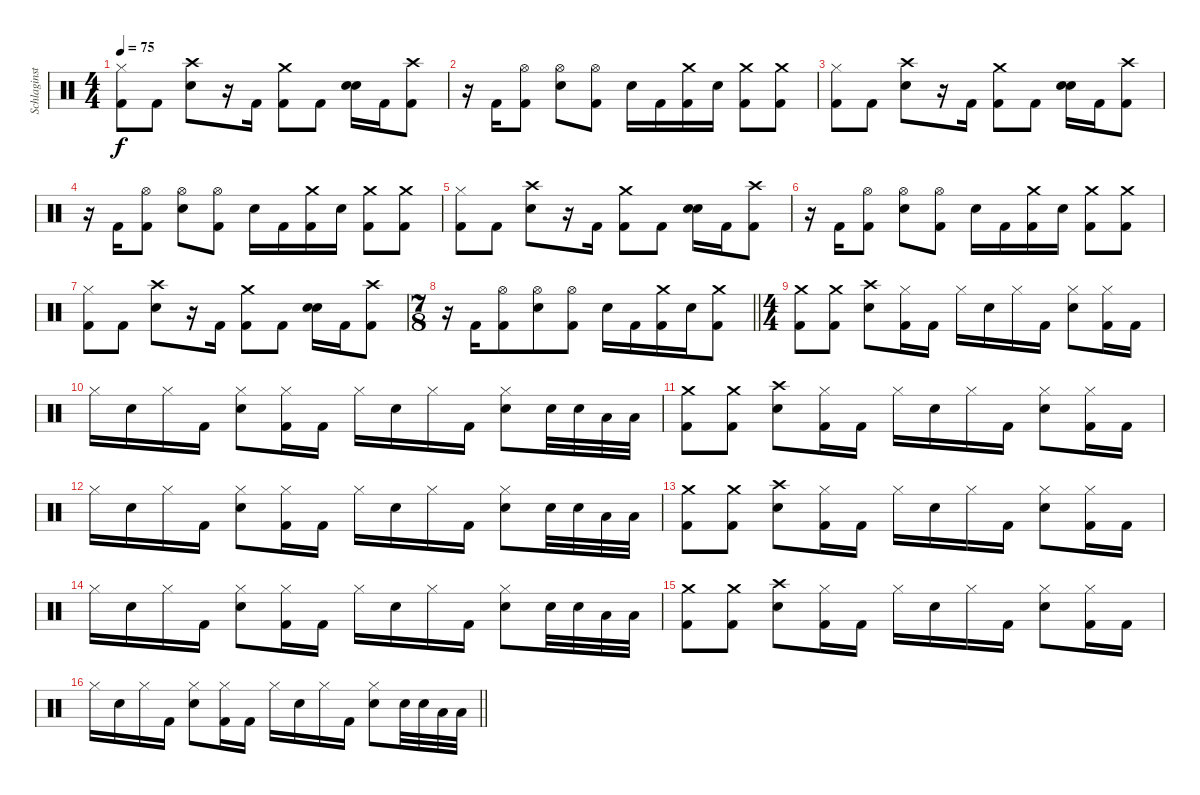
\track ("Schlaginstrumente - Auswahl" "Schlaginst") {instrument percussion}
\staff {score}
\articulation defaults
\ts (4 4)
\tempo 75
\clef neutral
\ks c
("Hi-Hat (closed)" "Kick (hit) 2").8{dy f} "Kick (hit) 2".8 ("Crash high (hit)" "Snare (hit) 2").8 r.16 "Kick (hit) 2".16 ("Crash medium (hit)" "Kick (hit) 2").8 "Kick (hit) 2".8 ("Snare (hit) 2" "Snare (hit) 2").16{bd 120} "Kick (hit) 2".16 ("Crash high (hit)" "Kick (hit) 2").8 |
r.16 "Kick (hit) 2".16 ("Hi-Hat (open)" "Kick (hit) 2").8 ("Hi-Hat (open)" "Snare (hit) 2").8 ("Hi-Hat (open)" "Kick (hit) 2").8 "Snare (hit) 2".16 "Kick (hit) 2".16 ("Crash medium (hit)" "Kick (hit) 2").16 "Snare (hit) 2".16 ("Crash medium (hit)" "Kick (hit) 2").8 ("Crash medium (hit)" "Kick (hit) 2").8 |
("Hi-Hat (closed)" "Kick (hit) 2").8 "Kick (hit) 2".8 ("Crash high (hit)" "Snare (hit) 2").8 r.16 "Kick (hit) 2".16 ("Crash medium (hit)" "Kick (hit) 2").8 "Kick (hit) 2".8 ("Snare (hit) 2" "Snare (hit) 2").16{bd 120} "Kick (hit) 2".16 ("Crash high (hit)" "Kick (hit) 2").8 |
r.16 "Kick (hit) 2".16 ("Hi-Hat (open)" "Kick (hit) 2").8 ("Hi-Hat (open)" "Snare (hit) 2").8 ("Hi-Hat (open)" "Kick (hit) 2").8 "Snare (hit) 2".16 "Kick (hit) 2".16 ("Crash medium (hit)" "Kick (hit) 2").16 "Snare (hit) 2".16 ("Crash medium (hit)" "Kick (hit) 2").8 ("Crash medium (hit)" "Kick (hit) 2").8 |
("Hi-Hat (closed)" "Kick (hit) 2").8 "Kick (hit) 2".8 ("Crash high (hit)" "Snare (hit) 2").8 r.16 "Kick (hit) 2".16 ("Crash medium (hit)" "Kick (hit) 2").8 "Kick (hit) 2".8 ("Snare (hit) 2" "Snare (hit) 2").16{bd 120} "Kick (hit) 2".16 ("Crash high (hit)" "Kick (hit) 2").8 |
r.16 "Kick (hit) 2".16 ("Hi-Hat (open)" "Kick (hit) 2").8 ("Hi-Hat (open)" "Snare (hit) 2").8 ("Hi-Hat (open)" "Kick (hit) 2").8 "Snare (hit) 2".16 "Kick (hit) 2".16 ("Crash medium (hit)" "Kick (hit) 2").16 "Snare (hit) 2".16 ("Crash medium (hit)" "Kick (hit) 2").8 ("Crash medium (hit)" "Kick (hit) 2").8 |
("Hi-Hat (closed)" "Kick (hit) 2").8 "Kick (hit) 2".8 ("Crash high (hit)" "Snare (hit) 2").8 r.16 "Kick (hit) 2".16 ("Crash medium (hit)" "Kick (hit) 2").8 "Kick (hit) 2".8 ("Snare (hit) 2" "Snare (hit) 2").16{bd 120} "Kick (hit) 2".16 ("Crash high (hit)" "Kick (hit) 2").8 |
\ts (7 8)
\barLineRight lightlight
r.16 "Kick (hit) 2".16 ("Hi-Hat (open)" "Kick (hit) 2").8 ("Hi-Hat (open)" "Snare (hit) 2").8 ("Hi-Hat (open)" "Kick (hit) 2").8 "Snare (hit) 2".16 "Kick (hit) 2".16 ("Crash medium (hit)" "Kick (hit) 2").16 "Snare (hit) 2".16 ("Crash medium (hit)" "Kick (hit) 2").8 |
\ts (4 4)
("Crash medium (hit)" "Kick (hit) 2").8 ("Crash medium (hit)" "Kick (hit) 2").8 ("Crash high (hit)" "Snare (hit) 2").8 ("Hi-Hat (closed)" "Kick (hit) 2").16 "Kick (hit) 2".16 "Hi-Hat (closed)".16 "Snare (hit) 2".16 "Hi-Hat (closed)".16 "Kick (hit) 2".16 ("Hi-Hat (closed)" "Snare (hit) 2").8 ("Hi-Hat (closed)" "Kick (hit) 2").16 "Kick (hit) 2".16 |
"Hi-Hat (closed)".16 "Snare (hit) 2".16 "Hi-Hat (closed)".16 "Kick (hit) 2".16 ("Hi-Hat (closed)" "Snare (hit) 2").8 ("Hi-Hat (closed)" "Kick (hit) 2").16 "Kick (hit) 2".16 "Hi-Hat (closed)".16 "Snare (hit) 2".16 "Hi-Hat (closed)".16 "Kick (hit) 2".16 ("Hi-Hat (closed)" "Snare (hit) 2").8 "Snare (hit) 2".32 "Snare (hit) 2".32 "Low Tom (hit)".32 "Low Tom (hit)".32 |
("Crash medium (hit)" "Kick (hit) 2").8 ("Crash medium (hit)" "Kick (hit) 2").8 ("Crash high (hit)" "Snare (hit) 2").8 ("Hi-Hat (closed)" "Kick (hit) 2").16 "Kick (hit) 2".16 "Hi-Hat (closed)".16 "Snare (hit) 2".16 "Hi-Hat (closed)".16 "Kick (hit) 2".16 ("Hi-Hat (closed)" "Snare (hit) 2").8 ("Hi-Hat (closed)" "Kick (hit) 2").16 "Kick (hit) 2".16 |
"Hi-Hat (closed)".16 "Snare (hit) 2".16 "Hi-Hat (closed)".16 "Kick (hit) 2".16 ("Hi-Hat (closed)" "Snare (hit) 2").8 ("Hi-Hat (closed)" "Kick (hit) 2").16 "Kick (hit) 2".16 "Hi-Hat (closed)".16 "Snare (hit) 2".16 "Hi-Hat (closed)".16 "Kick (hit) 2".16 ("Hi-Hat (closed)" "Snare (hit) 2").8 "Snare (hit) 2".32 "Snare (hit) 2".32 "Low Tom (hit)".32 "Low Tom (hit)".32 |
("Crash medium (hit)" "Kick (hit) 2").8 ("Crash medium (hit)" "Kick (hit) 2").8 ("Crash high (hit)" "Snare (hit) 2").8 ("Hi-Hat (closed)" "Kick (hit) 2").16 "Kick (hit) 2".16 "Hi-Hat (closed)".16 "Snare (hit) 2".16 "Hi-Hat (closed)".16 "Kick (hit) 2".16 ("Hi-Hat (closed)" "Snare (hit) 2").8 ("Hi-Hat (closed)" "Kick (hit) 2").16 "Kick (hit) 2".16 |
"Hi-Hat (closed)".16 "Snare (hit) 2".16 "Hi-Hat (closed)".16 "Kick (hit) 2".16 ("Hi-Hat (closed)" "Snare (hit) 2").8 ("Hi-Hat (closed)" "Kick (hit) 2").16 "Kick (hit) 2".16 "Hi-Hat (closed)".16 "Snare (hit) 2".16 "Hi-Hat (closed)".16 "Kick (hit) 2".16 ("Hi-Hat (closed)" "Snare (hit) 2").8 "Snare (hit) 2".32 "Snare (hit) 2".32 "Low Tom (hit)".32 "Low Tom (hit)".32 |
("Crash medium (hit)" "Kick (hit) 2").8 ("Crash medium (hit)" "Kick (hit) 2").8 ("Crash high (hit)" "Snare (hit) 2").8 ("Hi-Hat (closed)" "Kick (hit) 2").16 "Kick (hit) 2".16 "Hi-Hat (closed)".16 "Snare (hit) 2".16 "Hi-Hat (closed)".16 "Kick (hit) 2".16 ("Hi-Hat (closed)" "Snare (hit) 2").8 ("Hi-Hat (closed)" "Kick (hit) 2").16 "Kick (hit) 2".16 |
\barLineRight lightlight "Hi-Hat (closed)".16 "Snare (hit) 2".16 "Hi-Hat (closed)".16 "Kick (hit) 2".16
("Hi-Hat (closed)" "Snare (hit) 2").8 ("Hi-Hat (closed)" "Kick (hit) 2").16 "Kick (hit) 2".16 "Hi-Hat (closed)".16 "Snare (hit) 2".16 "Hi-Hat (closed)".16 "Kick (hit) 2".16 ("Hi-Hat (closed)" "Snare (hit) 2").8 "Snare (hit) 2".32 "Snare (hit) 2".32 "Low Tom (hit)".32 "Low Tom (hit)".32
